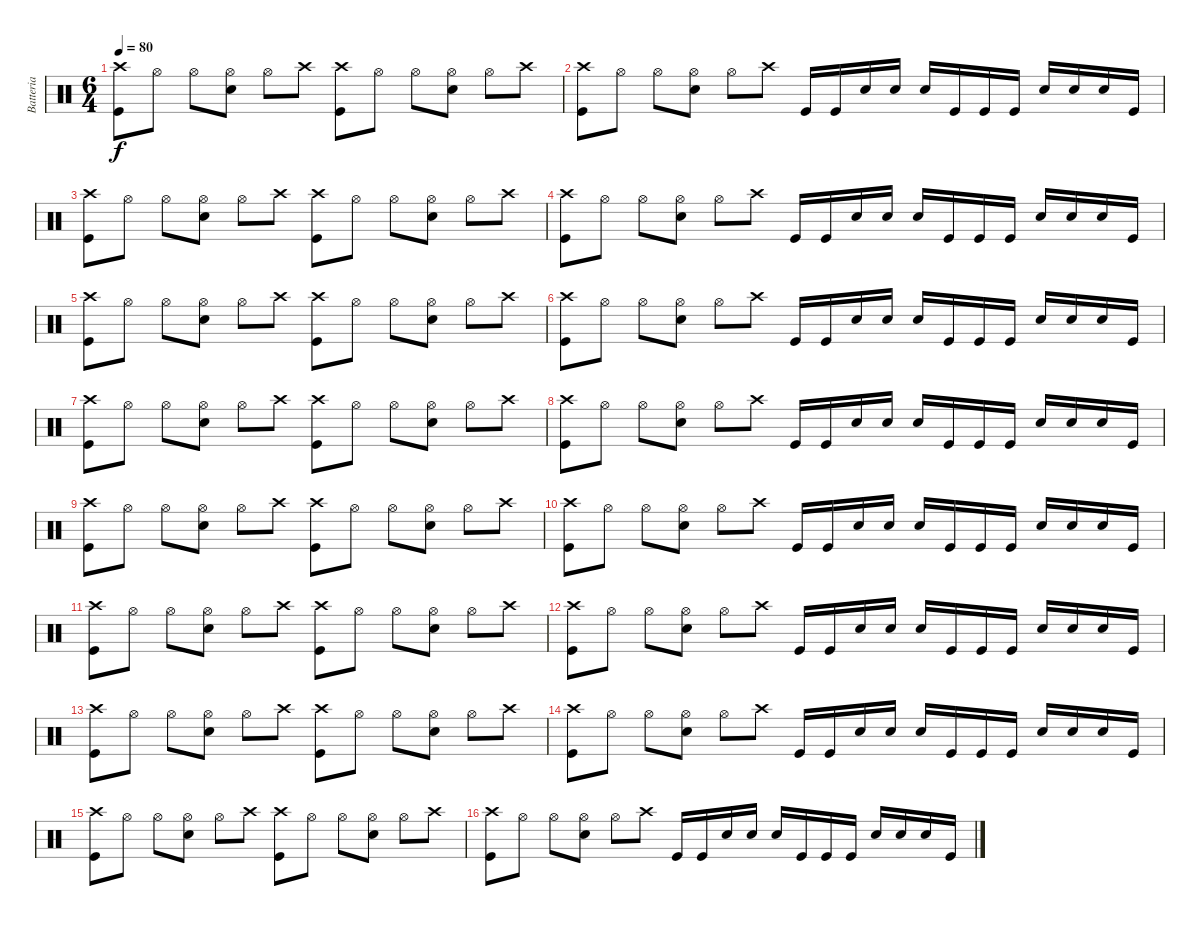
\track ("Batteria" "Batteria") {instrument percussion}
\staff {score}
\articulation defaults
\ts (6 4)
\tempo 80
\clef neutral
\ks c
("Kick (hit)" "Crash high (hit)").8{dy f} "Hi-Hat (open)".8 "Hi-Hat (open)".8 ("Snare (hit) 2" "Hi-Hat (open)").8 "Hi-Hat (open)".8 "Crash high (hit)".8 ("Kick (hit)" "Crash high (hit)").8 "Hi-Hat (open)".8 "Hi-Hat (open)".8 ("Snare (hit) 2" "Hi-Hat (open)").8 "Hi-Hat (open)".8 "Crash high (hit)".8 |
("Kick (hit)" "Crash high (hit)").8 "Hi-Hat (open)".8 "Hi-Hat (open)".8 ("Snare (hit) 2" "Hi-Hat (open)").8 "Hi-Hat (open)".8 "Crash high (hit)".8 "Kick (hit)".16 "Kick (hit)".16 "Snare (hit) 2".16 "Snare (hit) 2".16 "Snare (hit) 2".16 "Kick (hit)".16 "Kick (hit)".16 "Kick (hit)".16 "Snare (hit) 2".16 "Snare (hit) 2".16 "Snare (hit) 2".16 "Kick (hit)".16 |
("Kick (hit)" "Crash high (hit)").8 "Hi-Hat (open)".8 "Hi-Hat (open)".8 ("Snare (hit) 2" "Hi-Hat (open)").8 "Hi-Hat (open)".8 "Crash high (hit)".8 ("Kick (hit)" "Crash high (hit)").8 "Hi-Hat (open)".8 "Hi-Hat (open)".8 ("Snare (hit) 2" "Hi-Hat (open)").8 "Hi-Hat (open)".8 "Crash high (hit)".8 |
("Kick (hit)" "Crash high (hit)").8 "Hi-Hat (open)".8 "Hi-Hat (open)".8 ("Snare (hit) 2" "Hi-Hat (open)").8 "Hi-Hat (open)".8 "Crash high (hit)".8 "Kick (hit)".16 "Kick (hit)".16 "Snare (hit) 2".16 "Snare (hit) 2".16 "Snare (hit) 2".16 "Kick (hit)".16 "Kick (hit)".16 "Kick (hit)".16 "Snare (hit) 2".16 "Snare (hit) 2".16 "Snare (hit) 2".16 "Kick (hit)".16 |
("Kick (hit)" "Crash high (hit)").8 "Hi-Hat (open)".8 "Hi-Hat (open)".8 ("Snare (hit) 2" "Hi-Hat (open)").8 "Hi-Hat (open)".8 "Crash high (hit)".8 ("Kick (hit)" "Crash high (hit)").8 "Hi-Hat (open)".8 "Hi-Hat (open)".8 ("Snare (hit) 2" "Hi-Hat (open)").8 "Hi-Hat (open)".8 "Crash high (hit)".8 |
("Kick (hit)" "Crash high (hit)").8 "Hi-Hat (open)".8 "Hi-Hat (open)".8 ("Snare (hit) 2" "Hi-Hat (open)").8 "Hi-Hat (open)".8 "Crash high (hit)".8 "Kick (hit)".16 "Kick (hit)".16 "Snare (hit) 2".16 "Snare (hit) 2".16 "Snare (hit) 2".16 "Kick (hit)".16 "Kick (hit)".16 "Kick (hit)".16 "Snare (hit) 2".16 "Snare (hit) 2".16 "Snare (hit) 2".16 "Kick (hit)".16 |
("Kick (hit)" "Crash high (hit)").8 "Hi-Hat (open)".8 "Hi-Hat (open)".8 ("Snare (hit) 2" "Hi-Hat (open)").8 "Hi-Hat (open)".8 "Crash high (hit)".8 ("Kick (hit)" "Crash high (hit)").8 "Hi-Hat (open)".8 "Hi-Hat (open)".8 ("Snare (hit) 2" "Hi-Hat (open)").8 "Hi-Hat (open)".8 "Crash high (hit)".8 |
("Kick (hit)" "Crash high (hit)").8 "Hi-Hat (open)".8 "Hi-Hat (open)".8 ("Snare (hit) 2" "Hi-Hat (open)").8 "Hi-Hat (open)".8 "Crash high (hit)".8 "Kick (hit)".16 "Kick (hit)".16 "Snare (hit) 2".16 "Snare (hit) 2".16 "Snare (hit) 2".16 "Kick (hit)".16 "Kick (hit)".16 "Kick (hit)".16 "Snare (hit) 2".16 "Snare (hit) 2".16 "Snare (hit) 2".16 "Kick (hit)".16 |
("Kick (hit)" "Crash high (hit)").8 "Hi-Hat (open)".8 "Hi-Hat (open)".8 ("Snare (hit) 2" "Hi-Hat (open)").8 "Hi-Hat (open)".8 "Crash high (hit)".8 ("Kick (hit)" "Crash high (hit)").8 "Hi-Hat (open)".8 "Hi-Hat (open)".8 ("Snare (hit) 2" "Hi-Hat (open)").8 "Hi-Hat (open)".8 "Crash high (hit)".8 |
("Kick (hit)" "Crash high (hit)").8 "Hi-Hat (open)".8 "Hi-Hat (open)".8 ("Snare (hit) 2" "Hi-Hat (open)").8 "Hi-Hat (open)".8 "Crash high (hit)".8 "Kick (hit)".16 "Kick (hit)".16 "Snare (hit) 2".16 "Snare (hit) 2".16 "Snare (hit) 2".16 "Kick (hit)".16 "Kick (hit)".16 "Kick (hit)".16 "Snare (hit) 2".16 "Snare (hit) 2".16 "Snare (hit) 2".16 "Kick (hit)".16 |
("Kick (hit)" "Crash high (hit)").8 "Hi-Hat (open)".8 "Hi-Hat (open)".8 ("Snare (hit) 2" "Hi-Hat (open)").8 "Hi-Hat (open)".8 "Crash high (hit)".8 ("Kick (hit)" "Crash high (hit)").8 "Hi-Hat (open)".8 "Hi-Hat (open)".8 ("Snare (hit) 2" "Hi-Hat (open)").8 "Hi-Hat (open)".8 "Crash high (hit)".8 |
("Kick (hit)" "Crash high (hit)").8 "Hi-Hat (open)".8 "Hi-Hat (open)".8 ("Snare (hit) 2" "Hi-Hat (open)").8 "Hi-Hat (open)".8 "Crash high (hit)".8 "Kick (hit)".16 "Kick (hit)".16 "Snare (hit) 2".16 "Snare (hit) 2".16 "Snare (hit) 2".16 "Kick (hit)".16 "Kick (hit)".16 "Kick (hit)".16 "Snare (hit) 2".16 "Snare (hit) 2".16 "Snare (hit) 2".16 "Kick (hit)".16 |
("Kick (hit)" "Crash high (hit)").8 "Hi-Hat (open)".8 "Hi-Hat (open)".8 ("Snare (hit) 2" "Hi-Hat (open)").8 "Hi-Hat (open)".8 "Crash high (hit)".8 ("Kick (hit)" "Crash high (hit)").8 "Hi-Hat (open)".8 "Hi-Hat (open)".8 ("Snare (hit) 2" "Hi-Hat (open)").8 "Hi-Hat (open)".8 "Crash high (hit)".8 |
("Kick (hit)" "Crash high (hit)").8 "Hi-Hat (open)".8 "Hi-Hat (open)".8 ("Snare (hit) 2" "Hi-Hat (open)").8 "Hi-Hat (open)".8 "Crash high (hit)".8 "Kick (hit)".16 "Kick (hit)".16 "Snare (hit) 2".16 "Snare (hit) 2".16 "Snare (hit) 2".16 "Kick (hit)".16 "Kick (hit)".16 "Kick (hit)".16 "Snare (hit) 2".16 "Snare (hit) 2".16 "Snare (hit) 2".16 "Kick (hit)".16 |
("Kick (hit)" "Crash high (hit)").8 "Hi-Hat (open)".8 "Hi-Hat (open)".8 ("Snare (hit) 2" "Hi-Hat (open)").8 "Hi-Hat (open)".8 "Crash high (hit)".8 ("Kick (hit)" "Crash high (hit)").8 "Hi-Hat (open)".8 "Hi-Hat (open)".8 ("Snare (hit) 2" "Hi-Hat (open)").8 "Hi-Hat (open)".8 "Crash high (hit)".8 |
("Kick (hit)" "Crash high (hit)").8 "Hi-Hat (open)".8 "Hi-Hat (open)".8 ("Snare (hit) 2" "Hi-Hat (open)").8 "Hi-Hat (open)".8 "Crash high (hit)".8 "Kick (hit)".16 "Kick (hit)".16 "Snare (hit) 2".16 "Snare (hit) 2".16 "Snare (hit) 2".16 "Kick (hit)".16 "Kick (hit)".16 "Kick (hit)".16 "Snare (hit) 2".16 "Snare (hit) 2".16 "Snare (hit) 2".16 "Kick (hit)".16
